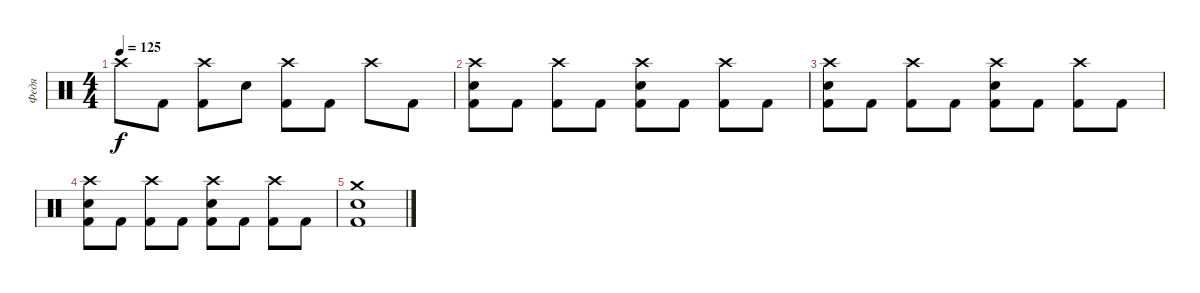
\track ("Федя" "Федя") {instrument percussion}
\staff {score}
\articulation defaults
\ts (4 4)
\tempo 125
\clef neutral
\ks c "Crash high (hit)".8{dy f} "Kick (hit) 2".8
("Crash high (hit)" "Kick (hit) 2").8 "Electric Snare (hit)".8 ("Crash high (hit)" "Kick (hit) 2").8 "Kick (hit) 2".8 "Crash high (hit)".8 "Kick (hit) 2".8 |
("Crash high (hit)" "Electric Snare (hit)" "Kick (hit) 2").8 "Kick (hit) 2".8 ("Crash high (hit)" "Kick (hit) 2").8 "Kick (hit) 2".8 ("Crash high (hit)" "Electric Snare (hit)" "Kick (hit) 2").8 "Kick (hit) 2".8 ("Crash high (hit)" "Kick (hit) 2").8 "Kick (hit) 2".8 |
("Crash high (hit)" "Electric Snare (hit)" "Kick (hit) 2").8 "Kick (hit) 2".8 ("Crash high (hit)" "Kick (hit) 2").8 "Kick (hit) 2".8 ("Crash high (hit)" "Electric Snare (hit)" "Kick (hit) 2").8 "Kick (hit) 2".8 ("Crash high (hit)" "Kick (hit) 2").8 "Kick (hit) 2".8 |
("Crash high (hit)" "Electric Snare (hit)" "Kick (hit) 2").8 "Kick (hit) 2".8 ("Crash high (hit)" "Kick (hit) 2").8 "Kick (hit) 2".8 ("Crash high (hit)" "Electric Snare (hit)" "Kick (hit) 2").8 "Kick (hit) 2".8 ("Crash high (hit)" "Kick (hit) 2").8 "Kick (hit) 2".8 |
("Crash medium (hit)" "Electric Snare (hit)" "Kick (hit) 2").1
